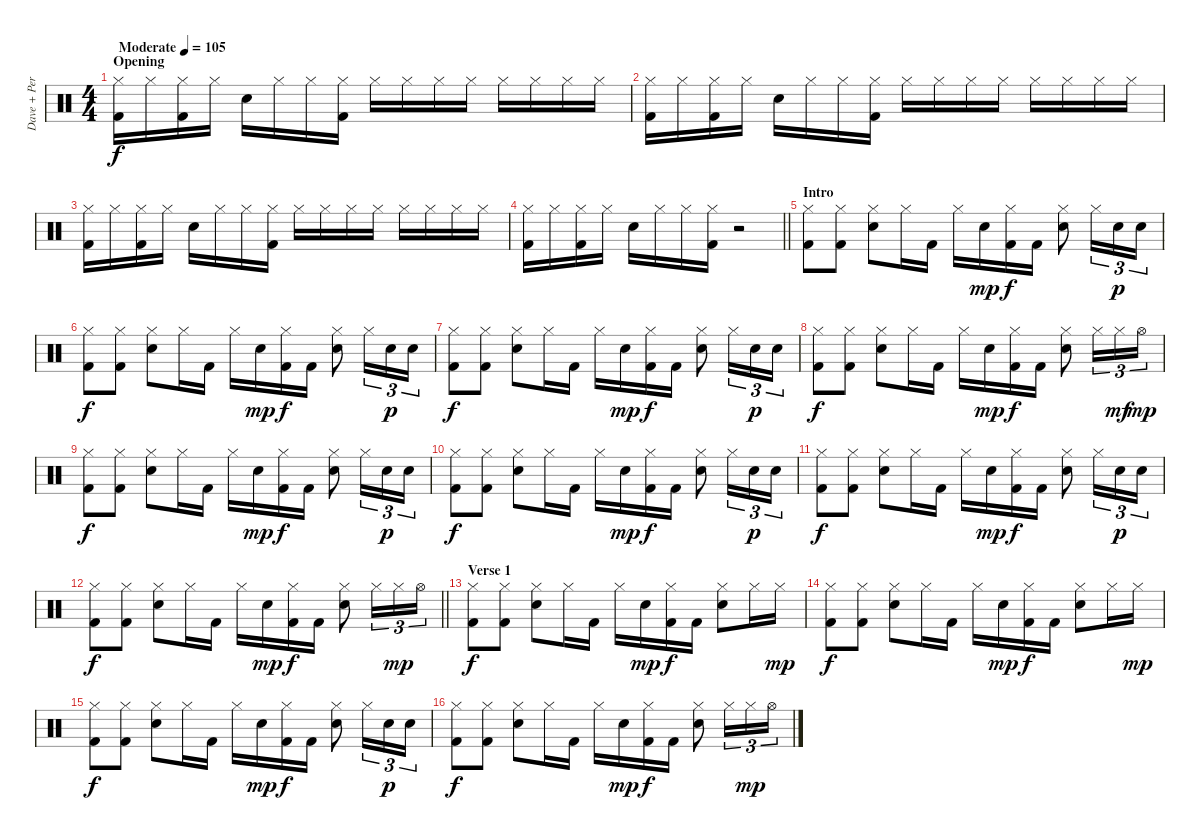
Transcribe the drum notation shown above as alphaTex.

\track ("Dave + Perc" "Dave + Per") {instrument percussion}
\staff {score}
\articulation defaults
\ts (4 4)
\section ("" "Opening")
\tempo (105 "Moderate")
\clef neutral
\ks c
("Hi-Hat (closed)" "Kick (hit) 2").16{dy f} "Hi-Hat (closed)".16 ("Hi-Hat (closed)" "Kick (hit) 2").16 "Hi-Hat (closed)".16 "Snare (hit) 2".16 "Hi-Hat (closed)".16 "Hi-Hat (closed)".16 ("Hi-Hat (closed)" "Kick (hit) 2").16 "Hi-Hat (closed)".16 "Hi-Hat (closed)".16 "Hi-Hat (closed)".16 "Hi-Hat (closed)".16 "Hi-Hat (closed)".16 "Hi-Hat (closed)".16 "Hi-Hat (closed)".16 "Hi-Hat (closed)".16 |
("Hi-Hat (closed)" "Kick (hit) 2").16 "Hi-Hat (closed)".16 ("Hi-Hat (closed)" "Kick (hit) 2").16 "Hi-Hat (closed)".16 "Snare (hit) 2".16 "Hi-Hat (closed)".16 "Hi-Hat (closed)".16 ("Hi-Hat (closed)" "Kick (hit) 2").16 "Hi-Hat (closed)".16 "Hi-Hat (closed)".16 "Hi-Hat (closed)".16 "Hi-Hat (closed)".16 "Hi-Hat (closed)".16 "Hi-Hat (closed)".16 "Hi-Hat (closed)".16 "Hi-Hat (closed)".16 |
("Hi-Hat (closed)" "Kick (hit) 2").16 "Hi-Hat (closed)".16 ("Hi-Hat (closed)" "Kick (hit) 2").16 "Hi-Hat (closed)".16 "Snare (hit) 2".16 "Hi-Hat (closed)".16 "Hi-Hat (closed)".16 ("Hi-Hat (closed)" "Kick (hit) 2").16 "Hi-Hat (closed)".16 "Hi-Hat (closed)".16 "Hi-Hat (closed)".16 "Hi-Hat (closed)".16 "Hi-Hat (closed)".16 "Hi-Hat (closed)".16 "Hi-Hat (closed)".16 "Hi-Hat (closed)".16 |
\barLineRight lightlight
("Hi-Hat (closed)" "Kick (hit) 2").16 "Hi-Hat (closed)".16 ("Hi-Hat (closed)" "Kick (hit) 2").16 "Hi-Hat (closed)".16 "Snare (hit) 2".16 "Hi-Hat (closed)".16 "Hi-Hat (closed)".16 ("Hi-Hat (closed)" "Kick (hit) 2").16 r.2 |
\section ("" "Intro")
("Hi-Hat (closed)" "Kick (hit) 2").8 ("Hi-Hat (closed)" "Kick (hit) 2").8 ("Hi-Hat (closed)" "Snare (hit) 2").8 "Hi-Hat (closed)".16 "Kick (hit) 2".16 "Hi-Hat (closed)".16 "Snare (hit) 2".16{dy mp} ("Hi-Hat (closed)" "Kick (hit) 2").16{dy f} "Kick (hit) 2".16 ("Hi-Hat (closed)" "Snare (hit) 2").8 "Hi-Hat (closed)".16{tu (3 2)} "Snare (hit) 2".16{tu (3 2) dy p} "Snare (hit) 2".16{tu (3 2)} |
("Hi-Hat (closed)" "Kick (hit) 2").8{dy f} ("Hi-Hat (closed)" "Kick (hit) 2").8 ("Hi-Hat (closed)" "Snare (hit) 2").8 "Hi-Hat (closed)".16 "Kick (hit) 2".16 "Hi-Hat (closed)".16 "Snare (hit) 2".16{dy mp} ("Hi-Hat (closed)" "Kick (hit) 2").16{dy f} "Kick (hit) 2".16 ("Hi-Hat (closed)" "Snare (hit) 2").8 "Hi-Hat (closed)".16{tu (3 2)} "Snare (hit) 2".16{tu (3 2) dy p} "Snare (hit) 2".16{tu (3 2)} |
("Hi-Hat (closed)" "Kick (hit) 2").8{dy f} ("Hi-Hat (closed)" "Kick (hit) 2").8 ("Hi-Hat (closed)" "Snare (hit) 2").8 "Hi-Hat (closed)".16 "Kick (hit) 2".16 "Hi-Hat (closed)".16 "Snare (hit) 2".16{dy mp} ("Hi-Hat (closed)" "Kick (hit) 2").16{dy f} "Kick (hit) 2".16 ("Hi-Hat (closed)" "Snare (hit) 2").8 "Hi-Hat (closed)".16{tu (3 2)} "Snare (hit) 2".16{tu (3 2) dy p} "Snare (hit) 2".16{tu (3 2)} |
("Hi-Hat (closed)" "Kick (hit) 2").8{dy f} ("Hi-Hat (closed)" "Kick (hit) 2").8 ("Hi-Hat (closed)" "Snare (hit) 2").8 "Hi-Hat (closed)".16 "Kick (hit) 2".16 "Hi-Hat (closed)".16 "Snare (hit) 2".16{dy mp} ("Hi-Hat (closed)" "Kick (hit) 2").16{dy f} "Kick (hit) 2".16 ("Hi-Hat (closed)" "Snare (hit) 2").8 "Hi-Hat (closed)".16{tu (3 2)} "Hi-Hat (closed)".16{tu (3 2) dy mf} "Hi-Hat (open)".16{tu (3 2) dy mp} |
("Hi-Hat (closed)" "Kick (hit) 2").8{dy f} ("Hi-Hat (closed)" "Kick (hit) 2").8 ("Hi-Hat (closed)" "Snare (hit) 2").8 "Hi-Hat (closed)".16 "Kick (hit) 2".16 "Hi-Hat (closed)".16 "Snare (hit) 2".16{dy mp} ("Hi-Hat (closed)" "Kick (hit) 2").16{dy f} "Kick (hit) 2".16 ("Hi-Hat (closed)" "Snare (hit) 2").8 "Hi-Hat (closed)".16{tu (3 2)} "Snare (hit) 2".16{tu (3 2) dy p} "Snare (hit) 2".16{tu (3 2)} |
("Hi-Hat (closed)" "Kick (hit) 2").8{dy f} ("Hi-Hat (closed)" "Kick (hit) 2").8 ("Hi-Hat (closed)" "Snare (hit) 2").8 "Hi-Hat (closed)".16 "Kick (hit) 2".16 "Hi-Hat (closed)".16 "Snare (hit) 2".16{dy mp} ("Hi-Hat (closed)" "Kick (hit) 2").16{dy f} "Kick (hit) 2".16 ("Hi-Hat (closed)" "Snare (hit) 2").8 "Hi-Hat (closed)".16{tu (3 2)} "Snare (hit) 2".16{tu (3 2) dy p} "Snare (hit) 2".16{tu (3 2)} |
("Hi-Hat (closed)" "Kick (hit) 2").8{dy f} ("Hi-Hat (closed)" "Kick (hit) 2").8 ("Hi-Hat (closed)" "Snare (hit) 2").8 "Hi-Hat (closed)".16 "Kick (hit) 2".16 "Hi-Hat (closed)".16 "Snare (hit) 2".16{dy mp} ("Hi-Hat (closed)" "Kick (hit) 2").16{dy f} "Kick (hit) 2".16 ("Hi-Hat (closed)" "Snare (hit) 2").8 "Hi-Hat (closed)".16{tu (3 2)} "Snare (hit) 2".16{tu (3 2) dy p} "Snare (hit) 2".16{tu (3 2)} |
\barLineRight lightlight
("Hi-Hat (closed)" "Kick (hit) 2").8{dy f} ("Hi-Hat (closed)" "Kick (hit) 2").8 ("Hi-Hat (closed)" "Snare (hit) 2").8 "Hi-Hat (closed)".16 "Kick (hit) 2".16 "Hi-Hat (closed)".16 "Snare (hit) 2".16{dy mp} ("Hi-Hat (closed)" "Kick (hit) 2").16{dy f} "Kick (hit) 2".16 ("Hi-Hat (closed)" "Snare (hit) 2").8 "Hi-Hat (closed)".16{tu (3 2)} "Hi-Hat (closed)".16{tu (3 2) dy mp} "Hi-Hat (open)".16{tu (3 2)} |
\section ("" "Verse 1")
("Hi-Hat (closed)" "Kick (hit) 2").8{dy f} ("Hi-Hat (closed)" "Kick (hit) 2").8 ("Hi-Hat (closed)" "Snare (hit) 2").8 "Hi-Hat (closed)".16 "Kick (hit) 2".16 "Hi-Hat (closed)".16 "Snare (hit) 2".16{dy mp} ("Hi-Hat (closed)" "Kick (hit) 2").16{dy f} "Kick (hit) 2".16 ("Hi-Hat (closed)" "Snare (hit) 2").8 "Hi-Hat (closed)".16 "Hi-Hat (closed)".16{dy mp} |
("Hi-Hat (closed)" "Kick (hit) 2").8{dy f} ("Hi-Hat (closed)" "Kick (hit) 2").8 ("Hi-Hat (closed)" "Snare (hit) 2").8 "Hi-Hat (closed)".16 "Kick (hit) 2".16 "Hi-Hat (closed)".16 "Snare (hit) 2".16{dy mp} ("Hi-Hat (closed)" "Kick (hit) 2").16{dy f} "Kick (hit) 2".16 ("Hi-Hat (closed)" "Snare (hit) 2").8 "Hi-Hat (closed)".16 "Hi-Hat (closed)".16{dy mp} |
("Hi-Hat (closed)" "Kick (hit) 2").8{dy f} ("Hi-Hat (closed)" "Kick (hit) 2").8 ("Hi-Hat (closed)" "Snare (hit) 2").8 "Hi-Hat (closed)".16 "Kick (hit) 2".16 "Hi-Hat (closed)".16 "Snare (hit) 2".16{dy mp} ("Hi-Hat (closed)" "Kick (hit) 2").16{dy f} "Kick (hit) 2".16 ("Hi-Hat (closed)" "Snare (hit) 2").8 "Hi-Hat (closed)".16{tu (3 2)} "Snare (hit) 2".16{tu (3 2) dy p} "Snare (hit) 2".16{tu (3 2)} |
("Hi-Hat (closed)" "Kick (hit) 2").8{dy f} ("Hi-Hat (closed)" "Kick (hit) 2").8 ("Hi-Hat (closed)" "Snare (hit) 2").8 "Hi-Hat (closed)".16 "Kick (hit) 2".16 "Hi-Hat (closed)".16 "Snare (hit) 2".16{dy mp} ("Hi-Hat (closed)" "Kick (hit) 2").16{dy f} "Kick (hit) 2".16 ("Hi-Hat (closed)" "Snare (hit) 2").8 "Hi-Hat (closed)".16{tu (3 2)} "Hi-Hat (closed)".16{tu (3 2) dy mp} "Hi-Hat (open)".16{tu (3 2)}
